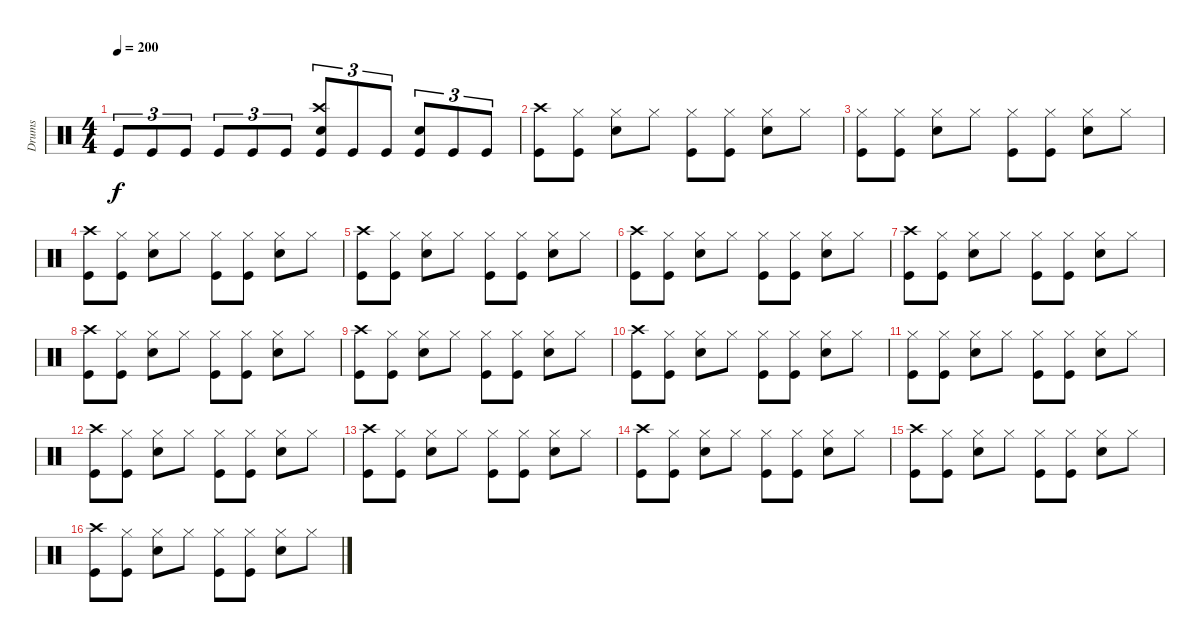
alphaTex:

\track ("Drums" "Drums") {instrument percussion}
\staff {score}
\articulation defaults
\ts (4 4)
\tempo 200
\clef neutral
\ks c "Kick (hit)".8{tu (3 2) dy f} "Kick (hit)".8{tu (3 2)} "Kick (hit)".8{tu (3 2)} "Kick (hit)".8{tu (3 2)} "Kick (hit)".8{tu (3 2)} "Kick (hit)".8{tu (3 2)}
("Crash high (hit)" "Snare (hit) 2" "Kick (hit)").8{tu (3 2)} "Kick (hit)".8{tu (3 2)} "Kick (hit)".8{tu (3 2)} ("Snare (hit) 2" "Kick (hit)").8{tu (3 2)} "Kick (hit)".8{tu (3 2)} "Kick (hit)".8{tu (3 2)} |
("Crash high (hit)" "Kick (hit)").8 ("Hi-Hat (closed)" "Kick (hit)").8 ("Hi-Hat (closed)" "Snare (hit) 2").8 "Hi-Hat (closed)".8 ("Hi-Hat (closed)" "Kick (hit)").8 ("Hi-Hat (closed)" "Kick (hit)").8 ("Hi-Hat (closed)" "Snare (hit) 2").8 "Hi-Hat (closed)".8 |
("Hi-Hat (closed)" "Kick (hit)").8 ("Hi-Hat (closed)" "Kick (hit)").8 ("Hi-Hat (closed)" "Snare (hit) 2").8 "Hi-Hat (closed)".8 ("Hi-Hat (closed)" "Kick (hit)").8 ("Hi-Hat (closed)" "Kick (hit)").8 ("Hi-Hat (closed)" "Snare (hit) 2").8 "Hi-Hat (closed)".8 |
("Crash high (hit)" "Kick (hit)").8 ("Hi-Hat (closed)" "Kick (hit)").8 ("Hi-Hat (closed)" "Snare (hit) 2").8 "Hi-Hat (closed)".8 ("Hi-Hat (closed)" "Kick (hit)").8 ("Hi-Hat (closed)" "Kick (hit)").8 ("Hi-Hat (closed)" "Snare (hit) 2").8 "Hi-Hat (closed)".8 |
("Crash high (hit)" "Kick (hit)").8 ("Hi-Hat (closed)" "Kick (hit)").8 ("Hi-Hat (closed)" "Snare (hit) 2").8 "Hi-Hat (closed)".8 ("Hi-Hat (closed)" "Kick (hit)").8 ("Hi-Hat (closed)" "Kick (hit)").8 ("Hi-Hat (closed)" "Snare (hit) 2").8 "Hi-Hat (closed)".8 |
("Crash high (hit)" "Kick (hit)").8 ("Hi-Hat (closed)" "Kick (hit)").8 ("Hi-Hat (closed)" "Snare (hit) 2").8 "Hi-Hat (closed)".8 ("Hi-Hat (closed)" "Kick (hit)").8 ("Hi-Hat (closed)" "Kick (hit)").8 ("Hi-Hat (closed)" "Snare (hit) 2").8 "Hi-Hat (closed)".8 |
("Crash high (hit)" "Kick (hit)").8 ("Hi-Hat (closed)" "Kick (hit)").8 ("Hi-Hat (closed)" "Snare (hit) 2").8 "Hi-Hat (closed)".8 ("Hi-Hat (closed)" "Kick (hit)").8 ("Hi-Hat (closed)" "Kick (hit)").8 ("Hi-Hat (closed)" "Snare (hit) 2").8 "Hi-Hat (closed)".8 |
("Crash high (hit)" "Kick (hit)").8 ("Hi-Hat (closed)" "Kick (hit)").8 ("Hi-Hat (closed)" "Snare (hit) 2").8 "Hi-Hat (closed)".8 ("Hi-Hat (closed)" "Kick (hit)").8 ("Hi-Hat (closed)" "Kick (hit)").8 ("Hi-Hat (closed)" "Snare (hit) 2").8 "Hi-Hat (closed)".8 |
("Crash high (hit)" "Kick (hit)").8 ("Hi-Hat (closed)" "Kick (hit)").8 ("Hi-Hat (closed)" "Snare (hit) 2").8 "Hi-Hat (closed)".8 ("Hi-Hat (closed)" "Kick (hit)").8 ("Hi-Hat (closed)" "Kick (hit)").8 ("Hi-Hat (closed)" "Snare (hit) 2").8 "Hi-Hat (closed)".8 |
("Crash high (hit)" "Kick (hit)").8 ("Hi-Hat (closed)" "Kick (hit)").8 ("Hi-Hat (closed)" "Snare (hit) 2").8 "Hi-Hat (closed)".8 ("Hi-Hat (closed)" "Kick (hit)").8 ("Hi-Hat (closed)" "Kick (hit)").8 ("Hi-Hat (closed)" "Snare (hit) 2").8 "Hi-Hat (closed)".8 |
("Hi-Hat (closed)" "Kick (hit)").8 ("Hi-Hat (closed)" "Kick (hit)").8 ("Hi-Hat (closed)" "Snare (hit) 2").8 "Hi-Hat (closed)".8 ("Hi-Hat (closed)" "Kick (hit)").8 ("Hi-Hat (closed)" "Kick (hit)").8 ("Hi-Hat (closed)" "Snare (hit) 2").8 "Hi-Hat (closed)".8 |
("Crash high (hit)" "Kick (hit)").8 ("Hi-Hat (closed)" "Kick (hit)").8 ("Hi-Hat (closed)" "Snare (hit) 2").8 "Hi-Hat (closed)".8 ("Hi-Hat (closed)" "Kick (hit)").8 ("Hi-Hat (closed)" "Kick (hit)").8 ("Hi-Hat (closed)" "Snare (hit) 2").8 "Hi-Hat (closed)".8 |
("Crash high (hit)" "Kick (hit)").8 ("Hi-Hat (closed)" "Kick (hit)").8 ("Hi-Hat (closed)" "Snare (hit) 2").8 "Hi-Hat (closed)".8 ("Hi-Hat (closed)" "Kick (hit)").8 ("Hi-Hat (closed)" "Kick (hit)").8 ("Hi-Hat (closed)" "Snare (hit) 2").8 "Hi-Hat (closed)".8 |
("Crash high (hit)" "Kick (hit)").8 ("Hi-Hat (closed)" "Kick (hit)").8 ("Hi-Hat (closed)" "Snare (hit) 2").8 "Hi-Hat (closed)".8 ("Hi-Hat (closed)" "Kick (hit)").8 ("Hi-Hat (closed)" "Kick (hit)").8 ("Hi-Hat (closed)" "Snare (hit) 2").8 "Hi-Hat (closed)".8 |
("Crash high (hit)" "Kick (hit)").8 ("Hi-Hat (closed)" "Kick (hit)").8 ("Hi-Hat (closed)" "Snare (hit) 2").8 "Hi-Hat (closed)".8 ("Hi-Hat (closed)" "Kick (hit)").8 ("Hi-Hat (closed)" "Kick (hit)").8 ("Hi-Hat (closed)" "Snare (hit) 2").8 "Hi-Hat (closed)".8 |
("Crash high (hit)" "Kick (hit)").8 ("Hi-Hat (closed)" "Kick (hit)").8 ("Hi-Hat (closed)" "Snare (hit) 2").8 "Hi-Hat (closed)".8 ("Hi-Hat (closed)" "Kick (hit)").8 ("Hi-Hat (closed)" "Kick (hit)").8 ("Hi-Hat (closed)" "Snare (hit) 2").8 "Hi-Hat (closed)".8
